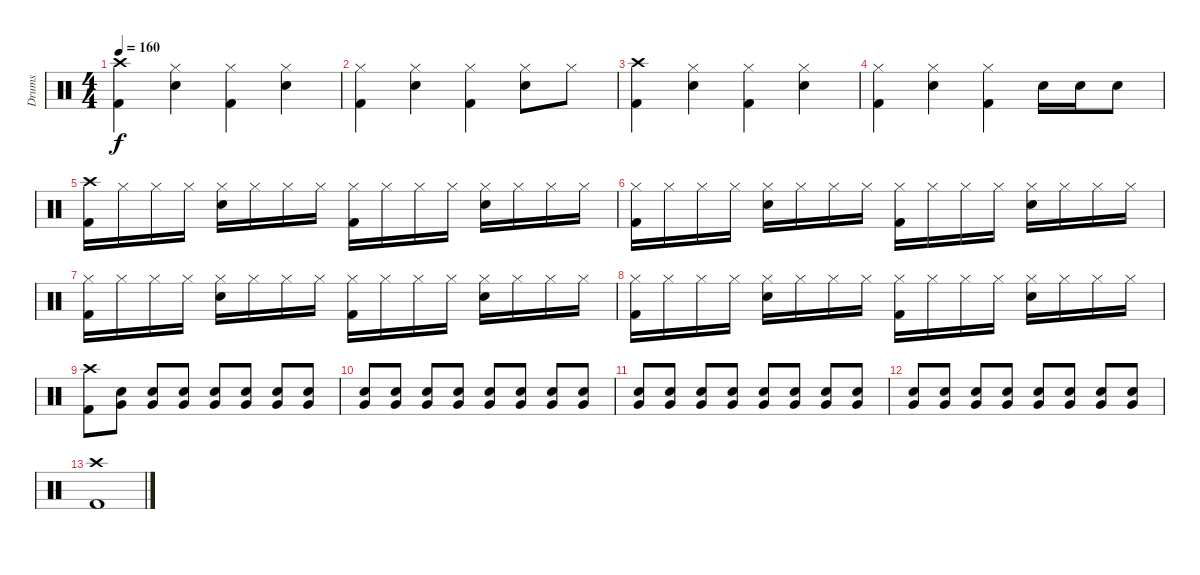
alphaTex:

\track ("Drums" "Drums") {instrument percussion}
\staff {score}
\articulation defaults
\ts (4 4)
\tempo 160
\clef neutral
\ks c
("Crash high (hit)" "Kick (hit) 2").4{dy f} ("Hi-Hat (closed)" "Snare (hit) 2").4 ("Hi-Hat (closed)" "Kick (hit) 2").4 ("Hi-Hat (closed)" "Snare (hit) 2").4 |
("Hi-Hat (closed)" "Kick (hit) 2").4 ("Hi-Hat (closed)" "Snare (hit) 2").4 ("Hi-Hat (closed)" "Kick (hit) 2").4 ("Hi-Hat (closed)" "Snare (hit) 2").8 "Hi-Hat (closed)".8 |
("Crash high (hit)" "Kick (hit) 2").4 ("Hi-Hat (closed)" "Snare (hit) 2").4 ("Hi-Hat (closed)" "Kick (hit) 2").4 ("Hi-Hat (closed)" "Snare (hit) 2").4 |
("Hi-Hat (closed)" "Kick (hit) 2").4 ("Hi-Hat (closed)" "Snare (hit) 2").4 ("Hi-Hat (closed)" "Kick (hit) 2").4 "Snare (hit) 2".16 "Snare (hit) 2".16 "Snare (hit) 2".8 |
("Crash high (hit)" "Kick (hit) 2").16 "Hi-Hat (closed)".16 "Hi-Hat (closed)".16 "Hi-Hat (closed)".16 ("Hi-Hat (closed)" "Snare (hit) 2").16 "Hi-Hat (closed)".16 "Hi-Hat (closed)".16 "Hi-Hat (closed)".16 ("Hi-Hat (closed)" "Kick (hit) 2").16 "Hi-Hat (closed)".16 "Hi-Hat (closed)".16 "Hi-Hat (closed)".16 ("Hi-Hat (closed)" "Snare (hit) 2").16 "Hi-Hat (closed)".16 "Hi-Hat (closed)".16 "Hi-Hat (closed)".16 |
("Hi-Hat (closed)" "Kick (hit) 2").16 "Hi-Hat (closed)".16 "Hi-Hat (closed)".16 "Hi-Hat (closed)".16 ("Hi-Hat (closed)" "Snare (hit) 2").16 "Hi-Hat (closed)".16 "Hi-Hat (closed)".16 "Hi-Hat (closed)".16 ("Hi-Hat (closed)" "Kick (hit) 2").16 "Hi-Hat (closed)".16 "Hi-Hat (closed)".16 "Hi-Hat (closed)".16 ("Hi-Hat (closed)" "Snare (hit) 2").16 "Hi-Hat (closed)".16 "Hi-Hat (closed)".16 "Hi-Hat (closed)".16 |
("Hi-Hat (closed)" "Kick (hit) 2").16 "Hi-Hat (closed)".16 "Hi-Hat (closed)".16 "Hi-Hat (closed)".16 ("Hi-Hat (closed)" "Snare (hit) 2").16 "Hi-Hat (closed)".16 "Hi-Hat (closed)".16 "Hi-Hat (closed)".16 ("Hi-Hat (closed)" "Kick (hit) 2").16 "Hi-Hat (closed)".16 "Hi-Hat (closed)".16 "Hi-Hat (closed)".16 ("Hi-Hat (closed)" "Snare (hit) 2").16 "Hi-Hat (closed)".16 "Hi-Hat (closed)".16 "Hi-Hat (closed)".16 |
("Hi-Hat (closed)" "Kick (hit) 2").16 "Hi-Hat (closed)".16 "Hi-Hat (closed)".16 "Hi-Hat (closed)".16 ("Hi-Hat (closed)" "Snare (hit) 2").16 "Hi-Hat (closed)".16 "Hi-Hat (closed)".16 "Hi-Hat (closed)".16 ("Hi-Hat (closed)" "Kick (hit) 2").16 "Hi-Hat (closed)".16 "Hi-Hat (closed)".16 "Hi-Hat (closed)".16 ("Hi-Hat (closed)" "Snare (hit) 2").16 "Hi-Hat (closed)".16 "Hi-Hat (closed)".16 "Hi-Hat (closed)".16 |
("Crash high (hit)" "Kick (hit) 2").8 ("Snare (hit) 2" "Very Low Tom (hit)").8 ("Snare (hit) 2" "Very Low Tom (hit)").8 ("Snare (hit) 2" "Very Low Tom (hit)").8 ("Snare (hit) 2" "Very Low Tom (hit)").8 ("Snare (hit) 2" "Very Low Tom (hit)").8 ("Snare (hit) 2" "Very Low Tom (hit)").8 ("Snare (hit) 2" "Very Low Tom (hit)").8 |
("Snare (hit) 2" "Very Low Tom (hit)").8 ("Snare (hit) 2" "Very Low Tom (hit)").8 ("Snare (hit) 2" "Very Low Tom (hit)").8 ("Snare (hit) 2" "Very Low Tom (hit)").8 ("Snare (hit) 2" "Very Low Tom (hit)").8 ("Snare (hit) 2" "Very Low Tom (hit)").8 ("Snare (hit) 2" "Very Low Tom (hit)").8 ("Snare (hit) 2" "Very Low Tom (hit)").8 |
("Snare (hit) 2" "Very Low Tom (hit)").8 ("Snare (hit) 2" "Very Low Tom (hit)").8 ("Snare (hit) 2" "Very Low Tom (hit)").8 ("Snare (hit) 2" "Very Low Tom (hit)").8 ("Snare (hit) 2" "Very Low Tom (hit)").8 ("Snare (hit) 2" "Very Low Tom (hit)").8 ("Snare (hit) 2" "Very Low Tom (hit)").8 ("Snare (hit) 2" "Very Low Tom (hit)").8 |
("Snare (hit) 2" "Very Low Tom (hit)").8 ("Snare (hit) 2" "Very Low Tom (hit)").8 ("Snare (hit) 2" "Very Low Tom (hit)").8 ("Snare (hit) 2" "Very Low Tom (hit)").8 ("Snare (hit) 2" "Very Low Tom (hit)").8 ("Snare (hit) 2" "Very Low Tom (hit)").8 ("Snare (hit) 2" "Very Low Tom (hit)").8 ("Snare (hit) 2" "Very Low Tom (hit)").8 |
("Crash high (hit)" "Kick (hit) 2").1
